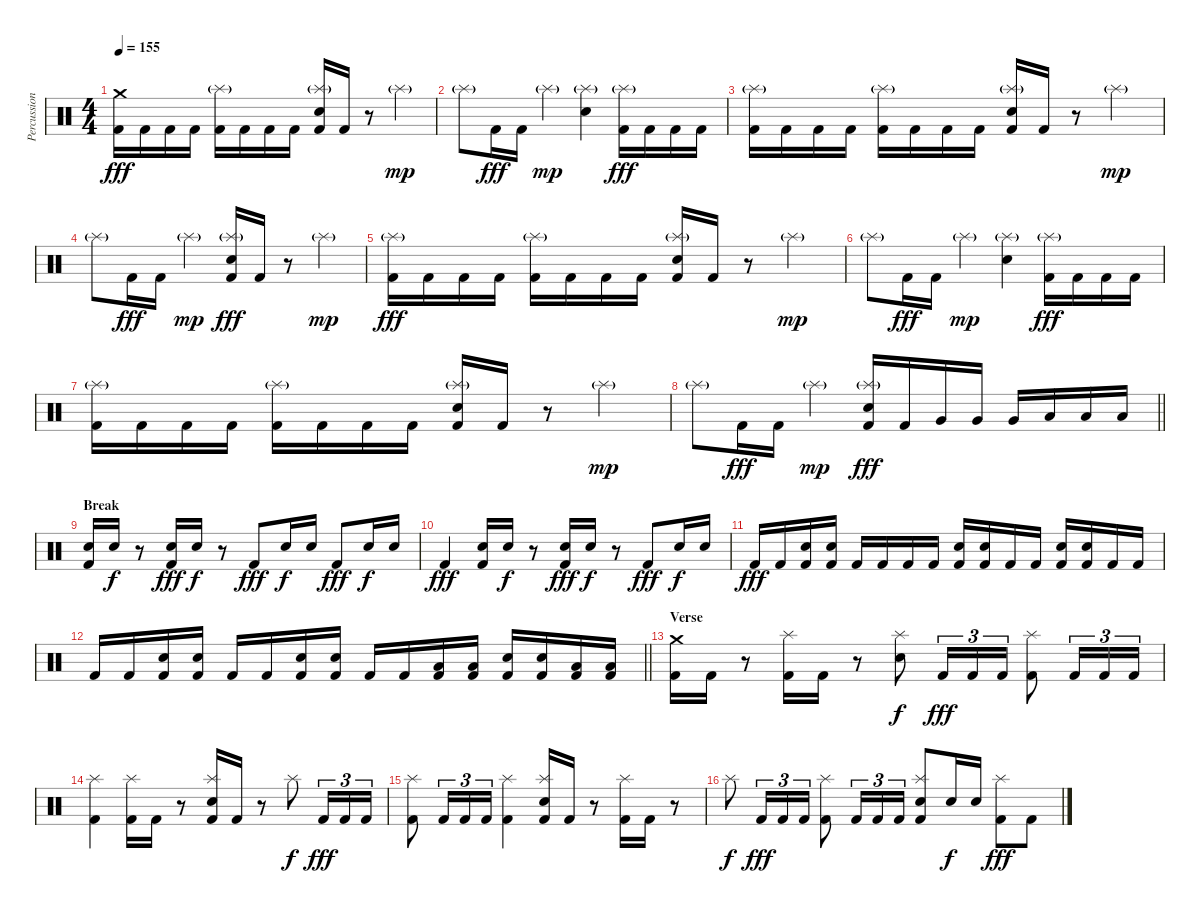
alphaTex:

\track ("Percussion" "Percussion") {instrument percussion}
\staff {score}
\articulation defaults
\ts (4 4)
\tempo 155
\clef neutral
\ks c
("Crash medium (hit)" "Kick (hit) 2").16{dy fff} "Kick (hit) 2".16 "Kick (hit) 2".16 "Kick (hit) 2".16 ("Splash (hit)"{g} "Kick (hit) 2").16 "Kick (hit) 2".16 "Kick (hit) 2".16 "Kick (hit) 2".16 ("Splash (hit)"{g} "Electric Snare (hit)" "Kick (hit) 2").16 "Kick (hit) 2".16 r.8 "Splash (hit)"{g}.4{dy mp} |
"Splash (hit)"{g}.8 "Kick (hit) 2".16{dy fff} "Kick (hit) 2".16 "Splash (hit)"{g}.4{dy mp} ("Splash (hit)"{g} "Electric Snare (hit)").4 ("Splash (hit)"{g} "Kick (hit) 2").16{dy fff} "Kick (hit) 2".16 "Kick (hit) 2".16 "Kick (hit) 2".16 |
("Splash (hit)"{g} "Kick (hit) 2").16 "Kick (hit) 2".16 "Kick (hit) 2".16 "Kick (hit) 2".16 ("Splash (hit)"{g} "Kick (hit) 2").16 "Kick (hit) 2".16 "Kick (hit) 2".16 "Kick (hit) 2".16 ("Splash (hit)"{g} "Electric Snare (hit)" "Kick (hit) 2").16 "Kick (hit) 2".16 r.8 "Splash (hit)"{g}.4{dy mp} |
"Splash (hit)"{g}.8 "Kick (hit) 2".16{dy fff} "Kick (hit) 2".16 "Splash (hit)"{g}.4{dy mp} ("Splash (hit)"{g} "Electric Snare (hit)" "Kick (hit) 2").16{dy fff} "Kick (hit) 2".16 r.8 "Splash (hit)"{g}.4{dy mp} |
("Splash (hit)"{g} "Kick (hit) 2").16{dy fff} "Kick (hit) 2".16 "Kick (hit) 2".16 "Kick (hit) 2".16 ("Splash (hit)"{g} "Kick (hit) 2").16 "Kick (hit) 2".16 "Kick (hit) 2".16 "Kick (hit) 2".16 ("Splash (hit)"{g} "Electric Snare (hit)" "Kick (hit) 2").16 "Kick (hit) 2".16 r.8 "Splash (hit)"{g}.4{dy mp} |
"Splash (hit)"{g}.8 "Kick (hit) 2".16{dy fff} "Kick (hit) 2".16 "Splash (hit)"{g}.4{dy mp} ("Splash (hit)"{g} "Electric Snare (hit)").4 ("Splash (hit)"{g} "Kick (hit) 2").16{dy fff} "Kick (hit) 2".16 "Kick (hit) 2".16 "Kick (hit) 2".16 |
("Splash (hit)"{g} "Kick (hit) 2").16 "Kick (hit) 2".16 "Kick (hit) 2".16 "Kick (hit) 2".16 ("Splash (hit)"{g} "Kick (hit) 2").16 "Kick (hit) 2".16 "Kick (hit) 2".16 "Kick (hit) 2".16 ("Splash (hit)"{g} "Electric Snare (hit)" "Kick (hit) 2").16 "Kick (hit) 2".16 r.8 "Splash (hit)"{g}.4{dy mp} |
\barLineRight lightlight "Splash (hit)"{g}.8 "Kick (hit) 2".16{dy fff} "Kick (hit) 2".16 "Splash (hit)"{g}.4{dy mp}
("Splash (hit)"{g} "Electric Snare (hit)" "Kick (hit) 2").16{dy fff} "Kick (hit) 2".16 "Very Low Tom (hit)".16 "Very Low Tom (hit)".16 "Very Low Tom (hit)".16 "Low Floor Tom (hit)".16 "Low Floor Tom (hit)".16 "Low Floor Tom (hit)".16 |
\section ("" "Break")
("Electric Snare (hit)" "Kick (hit) 2").16 "Electric Snare (hit)".16{dy f} r.8 ("Electric Snare (hit)" "Kick (hit) 2").16{dy fff} "Electric Snare (hit)".16{dy f} r.8 "Kick (hit) 2".8{dy fff} "Electric Snare (hit)".16{dy f} "Electric Snare (hit)".16 "Kick (hit) 2".8{dy fff} "Electric Snare (hit)".16{dy f} "Electric Snare (hit)".16 |
"Kick (hit) 2".4{dy fff} ("Electric Snare (hit)" "Kick (hit) 2").16 "Electric Snare (hit)".16{dy f} r.8 ("Electric Snare (hit)" "Kick (hit) 2").16{dy fff} "Electric Snare (hit)".16{dy f} r.8 "Kick (hit) 2".8{dy fff} "Electric Snare (hit)".16{dy f} "Electric Snare (hit)".16 |
"Kick (hit) 2".16{dy fff} "Kick (hit) 2".16 ("Electric Snare (hit)" "Kick (hit) 2").16 ("Electric Snare (hit)" "Kick (hit) 2").16 "Kick (hit) 2".16 "Kick (hit) 2".16 "Kick (hit) 2".16 "Kick (hit) 2".16 ("Electric Snare (hit)" "Kick (hit) 2").16 ("Electric Snare (hit)" "Kick (hit) 2").16 "Kick (hit) 2".16 "Kick (hit) 2".16 ("Electric Snare (hit)" "Kick (hit) 2").16 ("Electric Snare (hit)" "Kick (hit) 2").16 "Kick (hit) 2".16 "Kick (hit) 2".16 |
\barLineRight lightlight "Kick (hit) 2".16 "Kick (hit) 2".16
("Electric Snare (hit)" "Kick (hit) 2").16 ("Electric Snare (hit)" "Kick (hit) 2").16 "Kick (hit) 2".16 "Kick (hit) 2".16 ("Electric Snare (hit)" "Kick (hit) 2").16 ("Electric Snare (hit)" "Kick (hit) 2").16 "Kick (hit) 2".16 "Kick (hit) 2".16 ("Low Tom (hit)" "Kick (hit) 2").16 ("Low Tom (hit)" "Kick (hit) 2").16 ("Electric Snare (hit)" "Kick (hit) 2").16 ("Electric Snare (hit)" "Kick (hit) 2").16 ("Low Floor Tom (hit)" "Kick (hit) 2").16 ("Low Floor Tom (hit)" "Kick (hit) 2").16 |
\section ("" "Verse")
("Crash medium (hit)" "Kick (hit) 2").16 "Kick (hit) 2".16 r.8 ("Splash (hit)" "Kick (hit) 2").16 "Kick (hit) 2".16 r.8 ("Splash (hit)" "Electric Snare (hit)").8{dy f} "Kick (hit) 2".16{tu (3 2) dy fff} "Kick (hit) 2".16{tu (3 2)} "Kick (hit) 2".16{tu (3 2)} ("Splash (hit)" "Kick (hit) 2").8 "Kick (hit) 2".16{tu (3 2)} "Kick (hit) 2".16{tu (3 2)} "Kick (hit) 2".16{tu (3 2)} |
("Splash (hit)" "Kick (hit) 2").4 ("Splash (hit)" "Kick (hit) 2").16 "Kick (hit) 2".16 r.8 ("Splash (hit)" "Electric Snare (hit)" "Kick (hit) 2").16 "Kick (hit) 2".16 r.8 "Splash (hit)".8{dy f} "Kick (hit) 2".16{tu (3 2) dy fff} "Kick (hit) 2".16{tu (3 2)} "Kick (hit) 2".16{tu (3 2)} |
("Splash (hit)" "Kick (hit) 2").8 "Kick (hit) 2".16{tu (3 2)} "Kick (hit) 2".16{tu (3 2)} "Kick (hit) 2".16{tu (3 2)} ("Splash (hit)" "Kick (hit) 2").4 ("Splash (hit)" "Electric Snare (hit)" "Kick (hit) 2").16 "Kick (hit) 2".16 r.8 ("Splash (hit)" "Kick (hit) 2").16 "Kick (hit) 2".16 r.8 |
"Splash (hit)".8{dy f} "Kick (hit) 2".16{tu (3 2) dy fff} "Kick (hit) 2".16{tu (3 2)} "Kick (hit) 2".16{tu (3 2)} ("Splash (hit)" "Kick (hit) 2").8 "Kick (hit) 2".16{tu (3 2)} "Kick (hit) 2".16{tu (3 2)} "Kick (hit) 2".16{tu (3 2)} ("Splash (hit)" "Electric Snare (hit)" "Kick (hit) 2").8 "Electric Snare (hit)".16{dy f} "Electric Snare (hit)".16 ("Splash (hit)" "Kick (hit) 2").8{dy fff} "Kick (hit) 2".8
